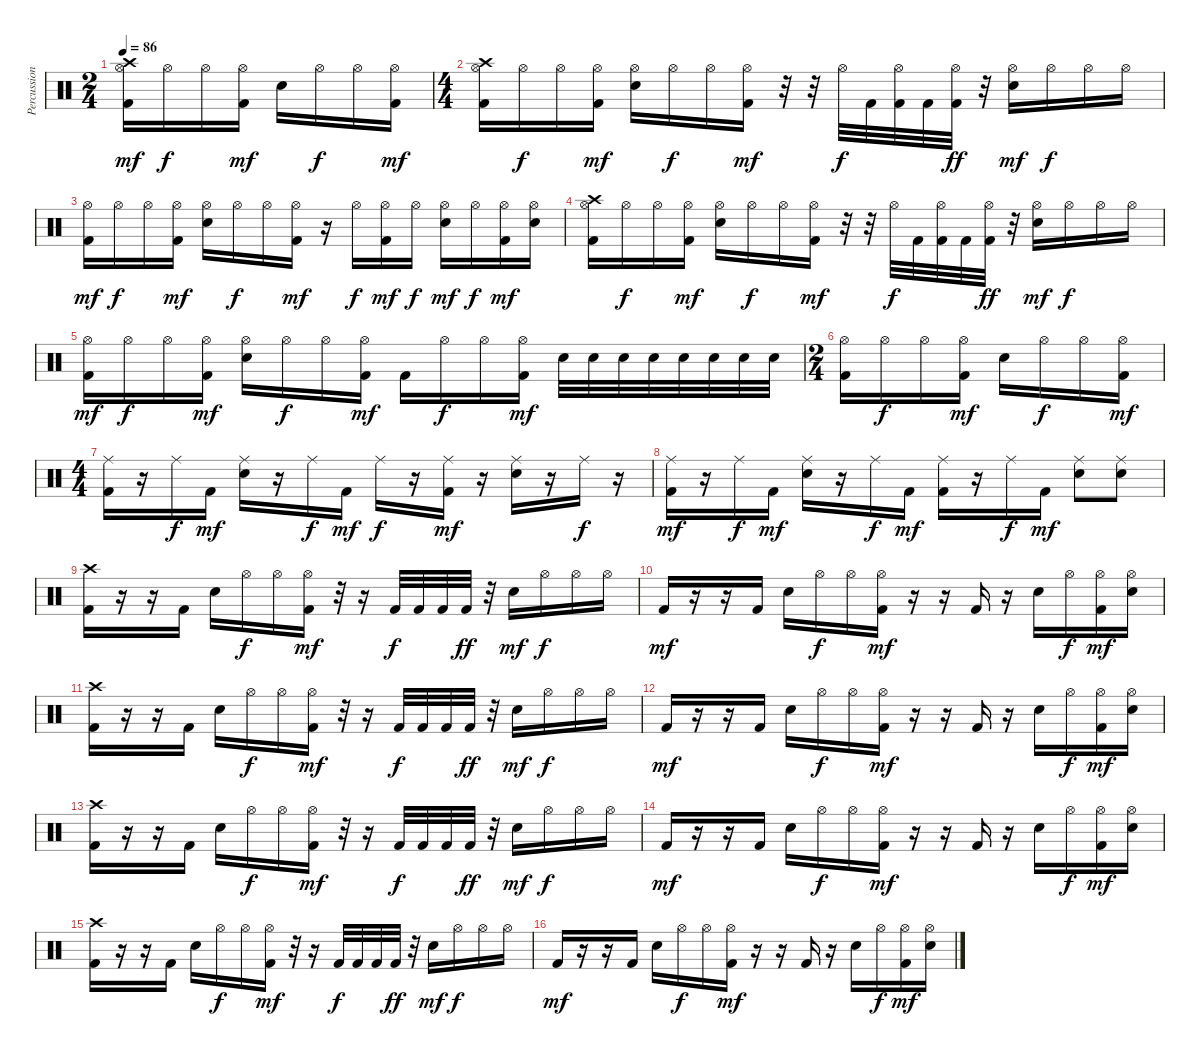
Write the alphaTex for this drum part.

\track ("Percussion" "Percussion") {instrument percussion}
\staff {score}
\articulation defaults
\ts (2 4)
\tempo 86
\clef neutral
\ks c
("Crash high (hit)" "Hi-Hat (open)" "Kick (hit) 2").16{dy mf} "Hi-Hat (open)".16{dy f} "Hi-Hat (open)".16 ("Hi-Hat (open)" "Kick (hit) 2").16{dy mf} "Electric Snare (hit)".16 "Hi-Hat (open)".16{dy f} "Hi-Hat (open)".16 ("Hi-Hat (open)" "Kick (hit) 2").16{dy mf} |
\ts (4 4)
("Crash high (hit)" "Hi-Hat (open)" "Kick (hit) 2").16 "Hi-Hat (open)".16{dy f} "Hi-Hat (open)".16 ("Hi-Hat (open)" "Kick (hit) 2").16{dy mf} ("Hi-Hat (open)" "Electric Snare (hit)").16 "Hi-Hat (open)".16{dy f} "Hi-Hat (open)".16 ("Hi-Hat (open)" "Kick (hit) 2").16{dy mf} r.32 r.32 "Hi-Hat (open)".32{dy f} "Kick (hit) 2".32 ("Hi-Hat (open)" "Kick (hit) 2").32 "Kick (hit) 2".32 ("Hi-Hat (open)" "Kick (hit) 2").32{dy ff} r.32 ("Hi-Hat (open)" "Electric Snare (hit)").16{dy mf} "Hi-Hat (open)".16{dy f} "Hi-Hat (open)".16 "Hi-Hat (open)".16 |
("Hi-Hat (open)" "Kick (hit) 2").16{dy mf} "Hi-Hat (open)".16{dy f} "Hi-Hat (open)".16 ("Hi-Hat (open)" "Kick (hit) 2").16{dy mf} ("Hi-Hat (open)" "Electric Snare (hit)").16 "Hi-Hat (open)".16{dy f} "Hi-Hat (open)".16 ("Hi-Hat (open)" "Kick (hit) 2").16{dy mf} r.16 "Hi-Hat (open)".16{dy f} ("Hi-Hat (open)" "Kick (hit) 2").16{dy mf} "Hi-Hat (open)".16{dy f} ("Hi-Hat (open)" "Electric Snare (hit)").16{dy mf} "Hi-Hat (open)".16{dy f} ("Hi-Hat (open)" "Kick (hit) 2").16{dy mf} ("Hi-Hat (open)" "Electric Snare (hit)").16 |
("Crash high (hit)" "Hi-Hat (open)" "Kick (hit) 2").16 "Hi-Hat (open)".16{dy f} "Hi-Hat (open)".16 ("Hi-Hat (open)" "Kick (hit) 2").16{dy mf} ("Hi-Hat (open)" "Electric Snare (hit)").16 "Hi-Hat (open)".16{dy f} "Hi-Hat (open)".16 ("Hi-Hat (open)" "Kick (hit) 2").16{dy mf} r.32 r.32 "Hi-Hat (open)".32{dy f} "Kick (hit) 2".32 ("Hi-Hat (open)" "Kick (hit) 2").32 "Kick (hit) 2".32 ("Hi-Hat (open)" "Kick (hit) 2").32{dy ff} r.32 ("Hi-Hat (open)" "Electric Snare (hit)").16{dy mf} "Hi-Hat (open)".16{dy f} "Hi-Hat (open)".16 "Hi-Hat (open)".16 |
("Hi-Hat (open)" "Kick (hit) 2").16{dy mf} "Hi-Hat (open)".16{dy f} "Hi-Hat (open)".16 ("Hi-Hat (open)" "Kick (hit) 2").16{dy mf} ("Hi-Hat (open)" "Electric Snare (hit)").16 "Hi-Hat (open)".16{dy f} "Hi-Hat (open)".16 ("Hi-Hat (open)" "Kick (hit) 2").16{dy mf} "Kick (hit) 2".16 "Hi-Hat (open)".16{dy f} "Hi-Hat (open)".16 ("Hi-Hat (open)" "Kick (hit) 2").16{dy mf} "Electric Snare (hit)".32 "Electric Snare (hit)".32 "Electric Snare (hit)".32 "Electric Snare (hit)".32 "Electric Snare (hit)".32 "Electric Snare (hit)".32 "Electric Snare (hit)".32 "Electric Snare (hit)".32 |
\ts (2 4)
("Hi-Hat (open)" "Kick (hit) 2").16 "Hi-Hat (open)".16{dy f} "Hi-Hat (open)".16 ("Hi-Hat (open)" "Kick (hit) 2").16{dy mf} "Electric Snare (hit)".16 "Hi-Hat (open)".16{dy f} "Hi-Hat (open)".16 ("Hi-Hat (open)" "Kick (hit) 2").16{dy mf} |
\ts (4 4)
("Ride (middle)" "Kick (hit) 2").16 r.16 "Ride (middle)".16{dy f} "Kick (hit) 2".16{dy mf} ("Ride (middle)" "Electric Snare (hit)").16 r.16 "Ride (middle)".16{dy f} "Kick (hit) 2".16{dy mf} "Ride (middle)".16{dy f} r.16 ("Ride (middle)" "Kick (hit) 2").16{dy mf} r.16 ("Ride (middle)" "Electric Snare (hit)").16 r.16 "Ride (middle)".16{dy f} r.16 |
("Ride (middle)" "Kick (hit) 2").16{dy mf} r.16 "Ride (middle)".16{dy f} "Kick (hit) 2".16{dy mf} ("Ride (middle)" "Electric Snare (hit)").16 r.16 "Ride (middle)".16{dy f} "Kick (hit) 2".16{dy mf} ("Ride (middle)" "Kick (hit) 2").16 r.16 "Ride (middle)".16{dy f} "Kick (hit) 2".16{dy mf} ("Ride (middle)" "Electric Snare (hit)").8 ("Ride (middle)" "Electric Snare (hit)").8 |
("Crash high (hit)" "Kick (hit) 2").16 r.16 r.16 "Kick (hit) 2".16 "Electric Snare (hit)".16 "Hi-Hat (open)".16{dy f} "Hi-Hat (open)".16 ("Hi-Hat (open)" "Kick (hit) 2").16{dy mf} r.32 r.16 "Kick (hit) 2".32{dy f} "Kick (hit) 2".32 "Kick (hit) 2".32 "Kick (hit) 2".32{dy ff} r.32 "Electric Snare (hit)".16{dy mf} "Hi-Hat (open)".16{dy f} "Hi-Hat (open)".16 "Hi-Hat (open)".16 |
"Kick (hit) 2".16{dy mf} r.16 r.16 "Kick (hit) 2".16 "Electric Snare (hit)".16 "Hi-Hat (open)".16{dy f} "Hi-Hat (open)".16 ("Hi-Hat (open)" "Kick (hit) 2").16{dy mf} r.16 r.16 "Kick (hit) 2".16 r.16 "Electric Snare (hit)".16 "Hi-Hat (open)".16{dy f} ("Hi-Hat (open)" "Kick (hit) 2").16{dy mf} ("Hi-Hat (open)" "Electric Snare (hit)").16 |
("Crash high (hit)" "Kick (hit) 2").16 r.16 r.16 "Kick (hit) 2".16 "Electric Snare (hit)".16 "Hi-Hat (open)".16{dy f} "Hi-Hat (open)".16 ("Hi-Hat (open)" "Kick (hit) 2").16{dy mf} r.32 r.16 "Kick (hit) 2".32{dy f} "Kick (hit) 2".32 "Kick (hit) 2".32 "Kick (hit) 2".32{dy ff} r.32 "Electric Snare (hit)".16{dy mf} "Hi-Hat (open)".16{dy f} "Hi-Hat (open)".16 "Hi-Hat (open)".16 |
"Kick (hit) 2".16{dy mf} r.16 r.16 "Kick (hit) 2".16 "Electric Snare (hit)".16 "Hi-Hat (open)".16{dy f} "Hi-Hat (open)".16 ("Hi-Hat (open)" "Kick (hit) 2").16{dy mf} r.16 r.16 "Kick (hit) 2".16 r.16 "Electric Snare (hit)".16 "Hi-Hat (open)".16{dy f} ("Hi-Hat (open)" "Kick (hit) 2").16{dy mf} ("Hi-Hat (open)" "Electric Snare (hit)").16 |
("Crash high (hit)" "Kick (hit) 2").16 r.16 r.16 "Kick (hit) 2".16 "Electric Snare (hit)".16 "Hi-Hat (open)".16{dy f} "Hi-Hat (open)".16 ("Hi-Hat (open)" "Kick (hit) 2").16{dy mf} r.32 r.16 "Kick (hit) 2".32{dy f} "Kick (hit) 2".32 "Kick (hit) 2".32 "Kick (hit) 2".32{dy ff} r.32 "Electric Snare (hit)".16{dy mf} "Hi-Hat (open)".16{dy f} "Hi-Hat (open)".16 "Hi-Hat (open)".16 |
"Kick (hit) 2".16{dy mf} r.16 r.16 "Kick (hit) 2".16 "Electric Snare (hit)".16 "Hi-Hat (open)".16{dy f} "Hi-Hat (open)".16 ("Hi-Hat (open)" "Kick (hit) 2").16{dy mf} r.16 r.16 "Kick (hit) 2".16 r.16 "Electric Snare (hit)".16 "Hi-Hat (open)".16{dy f} ("Hi-Hat (open)" "Kick (hit) 2").16{dy mf} ("Hi-Hat (open)" "Electric Snare (hit)").16 |
("Crash high (hit)" "Kick (hit) 2").16 r.16 r.16 "Kick (hit) 2".16 "Electric Snare (hit)".16 "Hi-Hat (open)".16{dy f} "Hi-Hat (open)".16 ("Hi-Hat (open)" "Kick (hit) 2").16{dy mf} r.32 r.16 "Kick (hit) 2".32{dy f} "Kick (hit) 2".32 "Kick (hit) 2".32 "Kick (hit) 2".32{dy ff} r.32 "Electric Snare (hit)".16{dy mf} "Hi-Hat (open)".16{dy f} "Hi-Hat (open)".16 "Hi-Hat (open)".16 |
"Kick (hit) 2".16{dy mf} r.16 r.16 "Kick (hit) 2".16 "Electric Snare (hit)".16 "Hi-Hat (open)".16{dy f} "Hi-Hat (open)".16 ("Hi-Hat (open)" "Kick (hit) 2").16{dy mf} r.16 r.16 "Kick (hit) 2".16 r.16 "Electric Snare (hit)".16 "Hi-Hat (open)".16{dy f} ("Hi-Hat (open)" "Kick (hit) 2").16{dy mf} ("Hi-Hat (open)" "Electric Snare (hit)").16
